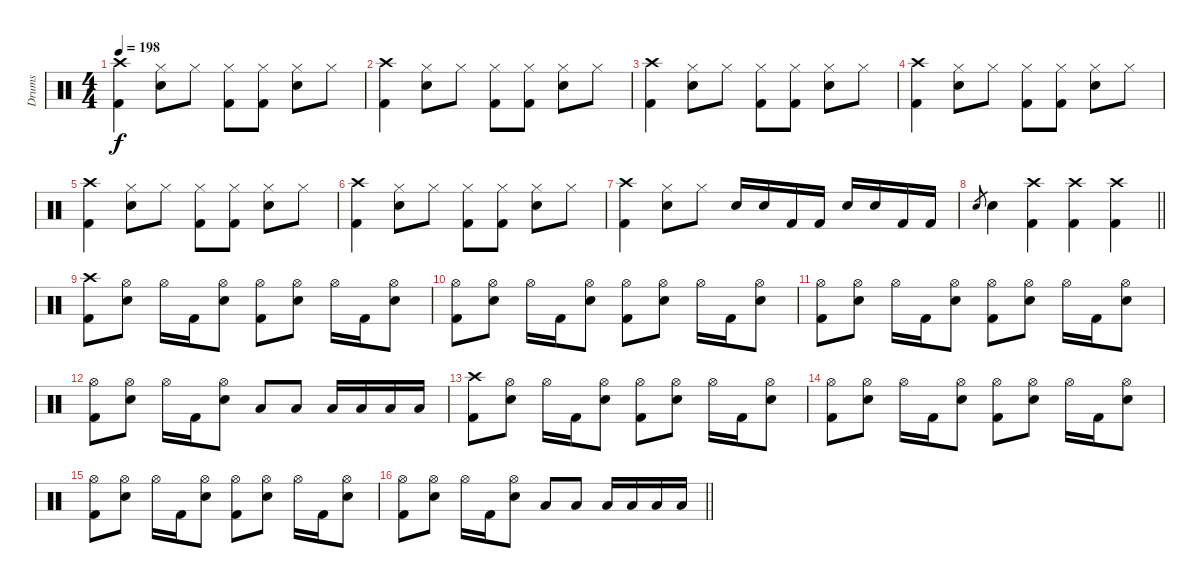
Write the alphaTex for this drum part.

\track ("Drums" "Drums") {instrument percussion}
\staff {score}
\articulation defaults
\ts (4 4)
\tempo 198
\clef neutral
\ks c
("Crash high (hit)" "Kick (hit) 2").4{dy f} ("Hi-Hat (closed)" "Snare (hit) 2").8 "Hi-Hat (closed)".8 ("Hi-Hat (closed)" "Kick (hit) 2").8 ("Hi-Hat (closed)" "Kick (hit) 2").8 ("Hi-Hat (closed)" "Snare (hit) 2").8 "Hi-Hat (closed)".8 |
("Crash high (hit)" "Kick (hit) 2").4 ("Hi-Hat (closed)" "Snare (hit) 2").8 "Hi-Hat (closed)".8 ("Hi-Hat (closed)" "Kick (hit) 2").8 ("Hi-Hat (closed)" "Kick (hit) 2").8 ("Hi-Hat (closed)" "Snare (hit) 2").8 "Hi-Hat (closed)".8 |
("Crash high (hit)" "Kick (hit) 2").4 ("Hi-Hat (closed)" "Snare (hit) 2").8 "Hi-Hat (closed)".8 ("Hi-Hat (closed)" "Kick (hit) 2").8 ("Hi-Hat (closed)" "Kick (hit) 2").8 ("Hi-Hat (closed)" "Snare (hit) 2").8 "Hi-Hat (closed)".8 |
("Crash high (hit)" "Kick (hit) 2").4 ("Hi-Hat (closed)" "Snare (hit) 2").8 "Hi-Hat (closed)".8 ("Hi-Hat (closed)" "Kick (hit) 2").8 ("Hi-Hat (closed)" "Kick (hit) 2").8 ("Hi-Hat (closed)" "Snare (hit) 2").8 "Hi-Hat (closed)".8 |
("Crash high (hit)" "Kick (hit) 2").4 ("Hi-Hat (closed)" "Snare (hit) 2").8 "Hi-Hat (closed)".8 ("Hi-Hat (closed)" "Kick (hit) 2").8 ("Hi-Hat (closed)" "Kick (hit) 2").8 ("Hi-Hat (closed)" "Snare (hit) 2").8 "Hi-Hat (closed)".8 |
("Crash high (hit)" "Kick (hit) 2").4 ("Hi-Hat (closed)" "Snare (hit) 2").8 "Hi-Hat (closed)".8 ("Hi-Hat (closed)" "Kick (hit) 2").8 ("Hi-Hat (closed)" "Kick (hit) 2").8 ("Hi-Hat (closed)" "Snare (hit) 2").8 "Hi-Hat (closed)".8 |
("Crash high (hit)" "Kick (hit) 2").4 ("Hi-Hat (closed)" "Snare (hit) 2").8 "Hi-Hat (closed)".8 "Snare (hit) 2".16 "Snare (hit) 2".16 "Kick (hit) 2".16 "Kick (hit) 2".16 "Snare (hit) 2".16 "Snare (hit) 2".16 "Kick (hit) 2".16 "Kick (hit) 2".16 |
\barLineRight lightlight "Snare (hit) 2".8{gr} "Snare (hit) 2".4
("Crash high (hit)" "Kick (hit) 2").4 ("Crash high (hit)" "Kick (hit) 2").4 ("Crash high (hit)" "Kick (hit) 2").4 |
("Crash high (hit)" "Kick (hit) 2").8 ("Hi-Hat (open)" "Snare (hit) 2").8 "Hi-Hat (open)".16 "Kick (hit) 2".16 ("Hi-Hat (open)" "Snare (hit) 2").8 ("Hi-Hat (open)" "Kick (hit) 2").8 ("Hi-Hat (open)" "Snare (hit) 2").8 "Hi-Hat (open)".16 "Kick (hit) 2".16 ("Hi-Hat (open)" "Snare (hit) 2").8 |
("Hi-Hat (open)" "Kick (hit) 2").8 ("Hi-Hat (open)" "Snare (hit) 2").8 "Hi-Hat (open)".16 "Kick (hit) 2".16 ("Hi-Hat (open)" "Snare (hit) 2").8 ("Hi-Hat (open)" "Kick (hit) 2").8 ("Hi-Hat (open)" "Snare (hit) 2").8 "Hi-Hat (open)".16 "Kick (hit) 2".16 ("Hi-Hat (open)" "Snare (hit) 2").8 |
("Hi-Hat (open)" "Kick (hit) 2").8 ("Hi-Hat (open)" "Snare (hit) 2").8 "Hi-Hat (open)".16 "Kick (hit) 2".16 ("Hi-Hat (open)" "Snare (hit) 2").8 ("Hi-Hat (open)" "Kick (hit) 2").8 ("Hi-Hat (open)" "Snare (hit) 2").8 "Hi-Hat (open)".16 "Kick (hit) 2".16 ("Hi-Hat (open)" "Snare (hit) 2").8 |
("Hi-Hat (open)" "Kick (hit) 2").8 ("Hi-Hat (open)" "Snare (hit) 2").8 "Hi-Hat (open)".16 "Kick (hit) 2".16 ("Hi-Hat (open)" "Snare (hit) 2").8 "Low Floor Tom (hit)".8 "Low Floor Tom (hit)".8 "Low Floor Tom (hit)".16 "Low Floor Tom (hit)".16 "Low Floor Tom (hit)".16 "Low Floor Tom (hit)".16 |
("Crash high (hit)" "Kick (hit) 2").8 ("Hi-Hat (open)" "Snare (hit) 2").8 "Hi-Hat (open)".16 "Kick (hit) 2".16 ("Hi-Hat (open)" "Snare (hit) 2").8 ("Hi-Hat (open)" "Kick (hit) 2").8 ("Hi-Hat (open)" "Snare (hit) 2").8 "Hi-Hat (open)".16 "Kick (hit) 2".16 ("Hi-Hat (open)" "Snare (hit) 2").8 |
("Hi-Hat (open)" "Kick (hit) 2").8 ("Hi-Hat (open)" "Snare (hit) 2").8 "Hi-Hat (open)".16 "Kick (hit) 2".16 ("Hi-Hat (open)" "Snare (hit) 2").8 ("Hi-Hat (open)" "Kick (hit) 2").8 ("Hi-Hat (open)" "Snare (hit) 2").8 "Hi-Hat (open)".16 "Kick (hit) 2".16 ("Hi-Hat (open)" "Snare (hit) 2").8 |
("Hi-Hat (open)" "Kick (hit) 2").8 ("Hi-Hat (open)" "Snare (hit) 2").8 "Hi-Hat (open)".16 "Kick (hit) 2".16 ("Hi-Hat (open)" "Snare (hit) 2").8 ("Hi-Hat (open)" "Kick (hit) 2").8 ("Hi-Hat (open)" "Snare (hit) 2").8 "Hi-Hat (open)".16 "Kick (hit) 2".16 ("Hi-Hat (open)" "Snare (hit) 2").8 |
\barLineRight lightlight
("Hi-Hat (open)" "Kick (hit) 2").8 ("Hi-Hat (open)" "Snare (hit) 2").8 "Hi-Hat (open)".16 "Kick (hit) 2".16 ("Hi-Hat (open)" "Snare (hit) 2").8 "Low Floor Tom (hit)".8 "Low Floor Tom (hit)".8 "Low Floor Tom (hit)".16 "Low Floor Tom (hit)".16 "Low Floor Tom (hit)".16 "Low Floor Tom (hit)".16
